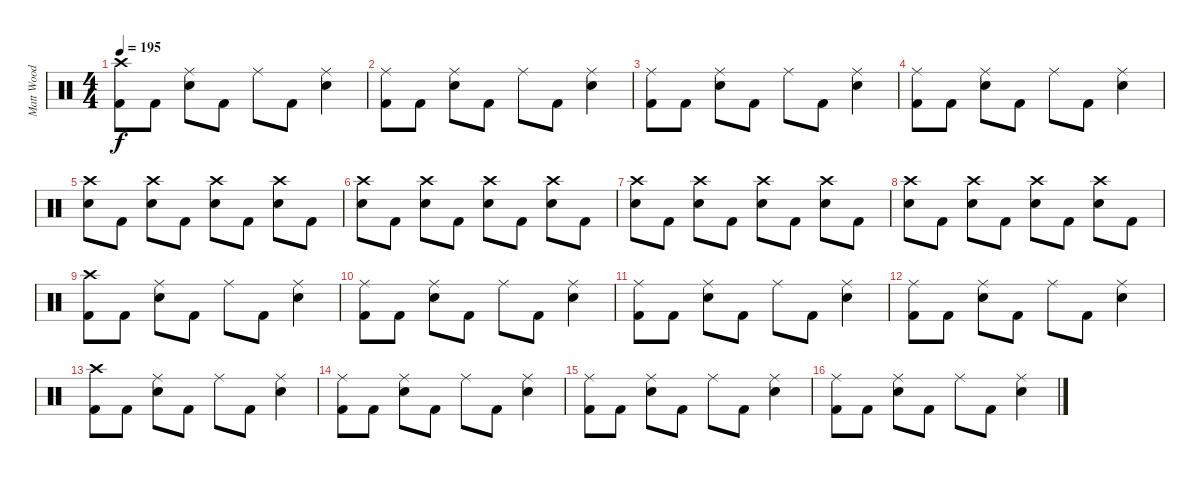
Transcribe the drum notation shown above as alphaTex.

\track ("Matt Wood" "Matt Wood") {instrument percussion}
\staff {score}
\articulation defaults
\ts (4 4)
\tempo 195
\clef neutral
\ks c
("Crash high (hit)" "Kick (hit) 2").8{dy f} "Kick (hit) 2".8 ("Ride (middle)" "Snare (hit) 2").8 "Kick (hit) 2".8 "Ride (middle)".8 "Kick (hit) 2".8 ("Ride (middle)" "Snare (hit) 2").4 |
("Ride (middle)" "Kick (hit) 2").8 "Kick (hit) 2".8 ("Ride (middle)" "Snare (hit) 2").8 "Kick (hit) 2".8 "Ride (middle)".8 "Kick (hit) 2".8 ("Ride (middle)" "Snare (hit) 2").4 |
("Ride (middle)" "Kick (hit) 2").8 "Kick (hit) 2".8 ("Ride (middle)" "Snare (hit) 2").8 "Kick (hit) 2".8 "Ride (middle)".8 "Kick (hit) 2".8 ("Ride (middle)" "Snare (hit) 2").4 |
("Ride (middle)" "Kick (hit) 2").8 "Kick (hit) 2".8 ("Ride (middle)" "Snare (hit) 2").8 "Kick (hit) 2".8 "Ride (middle)".8 "Kick (hit) 2".8 ("Ride (middle)" "Snare (hit) 2").4 |
("Crash high (hit)" "Snare (hit) 2").8 "Kick (hit) 2".8 ("Crash high (hit)" "Snare (hit) 2").8 "Kick (hit) 2".8 ("Crash high (hit)" "Snare (hit) 2").8 "Kick (hit) 2".8 ("Crash high (hit)" "Snare (hit) 2").8 "Kick (hit) 2".8 |
("Crash high (hit)" "Snare (hit) 2").8 "Kick (hit) 2".8 ("Crash high (hit)" "Snare (hit) 2").8 "Kick (hit) 2".8 ("Crash high (hit)" "Snare (hit) 2").8 "Kick (hit) 2".8 ("Crash high (hit)" "Snare (hit) 2").8 "Kick (hit) 2".8 |
("Crash high (hit)" "Snare (hit) 2").8 "Kick (hit) 2".8 ("Crash high (hit)" "Snare (hit) 2").8 "Kick (hit) 2".8 ("Crash high (hit)" "Snare (hit) 2").8 "Kick (hit) 2".8 ("Crash high (hit)" "Snare (hit) 2").8 "Kick (hit) 2".8 |
("Crash high (hit)" "Snare (hit) 2").8 "Kick (hit) 2".8 ("Crash high (hit)" "Snare (hit) 2").8 "Kick (hit) 2".8 ("Crash high (hit)" "Snare (hit) 2").8 "Kick (hit) 2".8 ("Crash high (hit)" "Snare (hit) 2").8 "Kick (hit) 2".8 |
("Crash high (hit)" "Kick (hit) 2").8 "Kick (hit) 2".8 ("Ride (middle)" "Snare (hit) 2").8 "Kick (hit) 2".8 "Ride (middle)".8 "Kick (hit) 2".8 ("Ride (middle)" "Snare (hit) 2").4 |
("Ride (middle)" "Kick (hit) 2").8 "Kick (hit) 2".8 ("Ride (middle)" "Snare (hit) 2").8 "Kick (hit) 2".8 "Ride (middle)".8 "Kick (hit) 2".8 ("Ride (middle)" "Snare (hit) 2").4 |
("Ride (middle)" "Kick (hit) 2").8 "Kick (hit) 2".8 ("Ride (middle)" "Snare (hit) 2").8 "Kick (hit) 2".8 "Ride (middle)".8 "Kick (hit) 2".8 ("Ride (middle)" "Snare (hit) 2").4 |
("Ride (middle)" "Kick (hit) 2").8 "Kick (hit) 2".8 ("Ride (middle)" "Snare (hit) 2").8 "Kick (hit) 2".8 "Ride (middle)".8 "Kick (hit) 2".8 ("Ride (middle)" "Snare (hit) 2").4 |
("Crash high (hit)" "Kick (hit) 2").8 "Kick (hit) 2".8 ("Ride (middle)" "Snare (hit) 2").8 "Kick (hit) 2".8 "Ride (middle)".8 "Kick (hit) 2".8 ("Ride (middle)" "Snare (hit) 2").4 |
("Ride (middle)" "Kick (hit) 2").8 "Kick (hit) 2".8 ("Ride (middle)" "Snare (hit) 2").8 "Kick (hit) 2".8 "Ride (middle)".8 "Kick (hit) 2".8 ("Ride (middle)" "Snare (hit) 2").4 |
("Ride (middle)" "Kick (hit) 2").8 "Kick (hit) 2".8 ("Ride (middle)" "Snare (hit) 2").8 "Kick (hit) 2".8 "Ride (middle)".8 "Kick (hit) 2".8 ("Ride (middle)" "Snare (hit) 2").4 |
("Ride (middle)" "Kick (hit) 2").8 "Kick (hit) 2".8 ("Ride (middle)" "Snare (hit) 2").8 "Kick (hit) 2".8 "Ride (middle)".8 "Kick (hit) 2".8 ("Ride (middle)" "Snare (hit) 2").4
